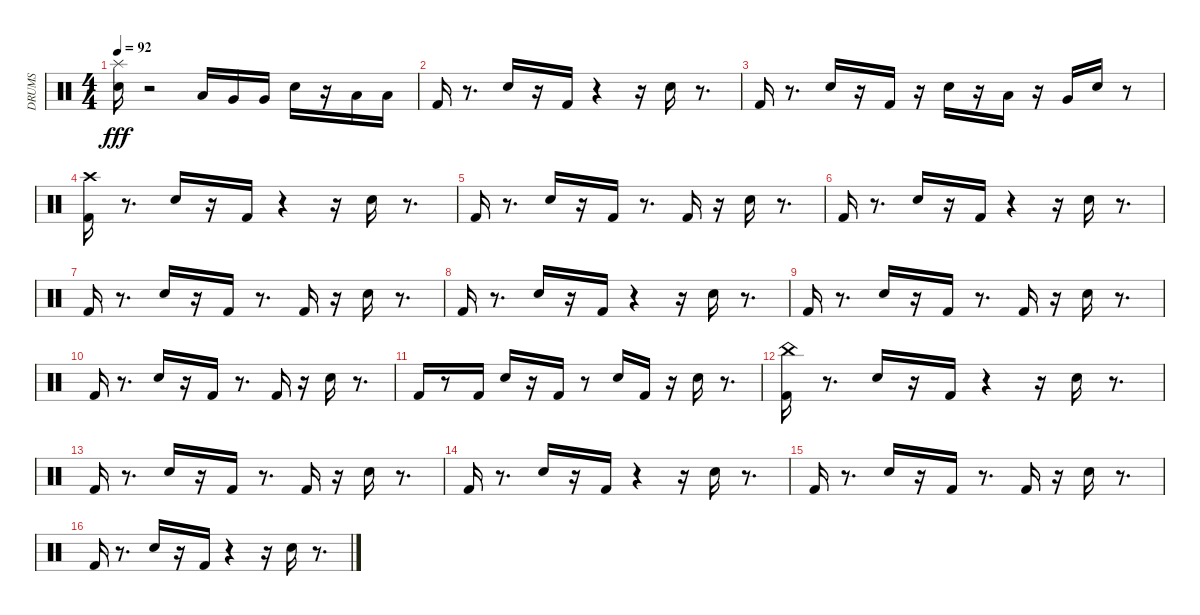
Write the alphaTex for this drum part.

\track ("DRUMS" "DRUMS") {instrument percussion}
\staff {score}
\articulation defaults
\ts (4 4)
\tempo 92
\clef neutral
\ks c
("Electric Snare (hit)" "Splash (hit)").16{dy fff} r.2 "Low Tom (hit)".16 "Very Low Tom (hit)".16 "Very Low Tom (hit)".16 "Electric Snare (hit)".16 r.16 "Low Floor Tom (hit)".16 "Low Floor Tom (hit)".16 |
"Kick (hit) 2".16 r.8{d} "Electric Snare (hit)".16 r.16 "Kick (hit) 2".16 r.4 r.16 "Electric Snare (hit)".16 r.8{d} |
"Kick (hit) 2".16 r.8{d} "Electric Snare (hit)".16 r.16 "Kick (hit) 2".16 r.16 "Electric Snare (hit)".16 r.16 "Low Tom (hit)".16 r.16 "Very Low Tom (hit)".16 "Electric Snare (hit)".16 r.8 |
("Kick (hit) 2" "Crash high (hit)").16 r.8{d} "Electric Snare (hit)".16 r.16 "Kick (hit) 2".16 r.4 r.16 "Electric Snare (hit)".16 r.8{d} |
"Kick (hit) 2".16 r.8{d} "Electric Snare (hit)".16 r.16 "Kick (hit) 2".16 r.8{d} "Kick (hit) 2".16 r.16 "Electric Snare (hit)".16 r.8{d} |
"Kick (hit) 2".16 r.8{d} "Electric Snare (hit)".16 r.16 "Kick (hit) 2".16 r.4 r.16 "Electric Snare (hit)".16 r.8{d} |
"Kick (hit) 2".16 r.8{d} "Electric Snare (hit)".16 r.16 "Kick (hit) 2".16 r.8{d} "Kick (hit) 2".16 r.16 "Electric Snare (hit)".16 r.8{d} |
"Kick (hit) 2".16 r.8{d} "Electric Snare (hit)".16 r.16 "Kick (hit) 2".16 r.4 r.16 "Electric Snare (hit)".16 r.8{d} |
"Kick (hit) 2".16 r.8{d} "Electric Snare (hit)".16 r.16 "Kick (hit) 2".16 r.8{d} "Kick (hit) 2".16 r.16 "Electric Snare (hit)".16 r.8{d} |
"Kick (hit) 2".16 r.8{d} "Electric Snare (hit)".16 r.16 "Kick (hit) 2".16 r.8{d} "Kick (hit) 2".16 r.16 "Electric Snare (hit)".16 r.8{d} |
"Kick (hit) 2".16 r.8 "Kick (hit) 2".16 "Electric Snare (hit)".16 r.16 "Kick (hit) 2".16 r.8 "Electric Snare (hit)".16 "Kick (hit) 2".16 r.16 "Electric Snare (hit)".16 r.8{d} |
("Kick (hit) 2" "China (hit)").16 r.8{d} "Electric Snare (hit)".16 r.16 "Kick (hit) 2".16 r.4 r.16 "Electric Snare (hit)".16 r.8{d} |
"Kick (hit) 2".16 r.8{d} "Electric Snare (hit)".16 r.16 "Kick (hit) 2".16 r.8{d} "Kick (hit) 2".16 r.16 "Electric Snare (hit)".16 r.8{d} |
"Kick (hit) 2".16 r.8{d} "Electric Snare (hit)".16 r.16 "Kick (hit) 2".16 r.4 r.16 "Electric Snare (hit)".16 r.8{d} |
"Kick (hit) 2".16 r.8{d} "Electric Snare (hit)".16 r.16 "Kick (hit) 2".16 r.8{d} "Kick (hit) 2".16 r.16 "Electric Snare (hit)".16 r.8{d} |
"Kick (hit) 2".16 r.8{d} "Electric Snare (hit)".16 r.16 "Kick (hit) 2".16 r.4 r.16 "Electric Snare (hit)".16 r.8{d}
